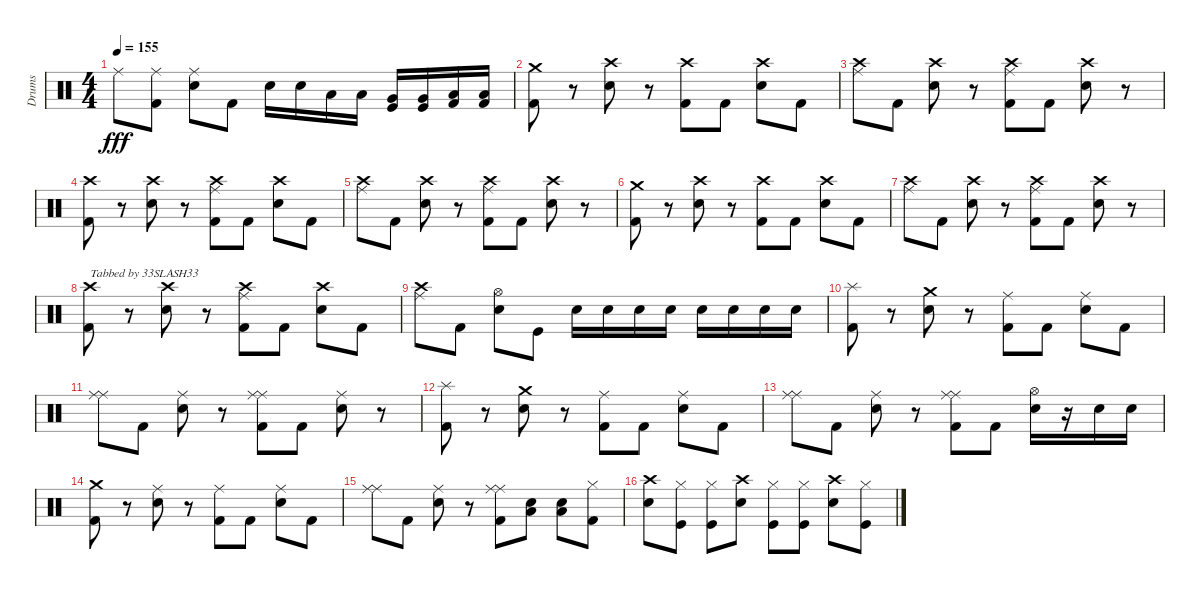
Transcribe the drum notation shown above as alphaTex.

\track ("Drums" "Drums") {instrument percussion}
\staff {score}
\articulation defaults
\ts (4 4)
\tempo 155
\clef neutral
\ks c "Ride (middle)".8{dy fff}
("Ride (middle)" "Kick (hit) 2").8 ("Ride (middle)" "Snare (hit) 2").8 "Kick (hit) 2".8 "Snare (hit) 2".16 "Snare (hit) 2".16 "Low Tom (hit)".16 "Low Tom (hit)".16 ("Very Low Tom (hit)" "Kick (hit)").16 ("Very Low Tom (hit)" "Kick (hit)").16 ("Low Floor Tom (hit)" "Kick (hit) 2").16 ("Low Floor Tom (hit)" "Kick (hit) 2").16 |
("Crash medium (hit)" "Kick (hit) 2").8 r.8 ("Crash high (hit)" "Snare (hit) 2").8 r.8 ("Crash high (hit)" "Kick (hit) 2").8 "Kick (hit) 2".8 ("Crash high (hit)" "Snare (hit) 2").8 "Kick (hit) 2".8 |
("Crash high (hit)" "Ride (middle)").8 "Kick (hit) 2".8 ("Crash high (hit)" "Snare (hit) 2").8 r.8 ("Crash high (hit)" "Ride (middle)" "Kick (hit) 2").8 "Kick (hit) 2".8 ("Crash high (hit)" "Snare (hit) 2").8 r.8 |
("Crash high (hit)" "Kick (hit) 2").8 r.8 ("Crash high (hit)" "Snare (hit) 2").8 r.8 ("Crash high (hit)" "Ride (middle)" "Kick (hit) 2").8 "Kick (hit) 2".8 ("Crash high (hit)" "Snare (hit) 2").8 "Kick (hit) 2".8 |
("Crash high (hit)" "Ride (middle)").8 "Kick (hit) 2".8 ("Crash high (hit)" "Snare (hit) 2").8 r.8 ("Crash high (hit)" "Ride (middle)" "Kick (hit) 2").8 "Kick (hit) 2".8 ("Crash high (hit)" "Snare (hit) 2").8 r.8 |
("Crash medium (hit)" "Kick (hit) 2").8 r.8 ("Crash high (hit)" "Snare (hit) 2").8 r.8 ("Crash high (hit)" "Kick (hit) 2").8 "Kick (hit) 2".8 ("Crash high (hit)" "Snare (hit) 2").8 "Kick (hit) 2".8 |
("Crash high (hit)" "Ride (middle)").8 "Kick (hit) 2".8 ("Crash high (hit)" "Snare (hit) 2").8 r.8 ("Crash high (hit)" "Ride (middle)" "Kick (hit) 2").8 "Kick (hit) 2".8 ("Crash high (hit)" "Snare (hit) 2").8 r.8 |
("Crash high (hit)" "Kick (hit) 2").8{txt "Tabbed by 33SLASH33"} r.8 ("Crash high (hit)" "Snare (hit) 2").8 r.8 ("Crash high (hit)" "Ride (middle)" "Kick (hit) 2").8 "Kick (hit) 2".8 ("Crash high (hit)" "Snare (hit) 2").8 "Kick (hit) 2".8 |
("Crash high (hit)" "Ride (middle)").8 "Kick (hit) 2".8 ("Hi-Hat (open)" "Snare (hit) 2").8 "Kick (hit)".8 "Snare (hit) 2".16 "Snare (hit) 2".16 "Snare (hit) 2".16 "Snare (hit) 2".16 "Snare (hit) 2".16 "Snare (hit) 2".16 "Snare (hit) 2".16 "Snare (hit) 2".16 |
("Splash (hit)" "Kick (hit) 2").8 r.8 ("Crash medium (hit)" "Snare (hit) 2").8 r.8 ("Ride (middle)" "Kick (hit) 2").8 "Kick (hit) 2".8 ("Ride (middle)" "Snare (hit) 2").8 "Kick (hit) 2".8 |
("Ride (middle)" "Ride (middle)").8 "Kick (hit) 2".8 ("Ride (middle)" "Snare (hit) 2").8 r.8 ("Ride (middle)" "Ride (middle)" "Kick (hit) 2").8 "Kick (hit) 2".8 ("Ride (middle)" "Snare (hit) 2").8 r.8 |
("Splash (hit)" "Kick (hit) 2").8 r.8 ("Crash medium (hit)" "Snare (hit) 2").8 r.8 ("Ride (middle)" "Kick (hit) 2").8 "Kick (hit) 2".8 ("Ride (middle)" "Snare (hit) 2").8 "Kick (hit) 2".8 |
("Ride (middle)" "Ride (middle)").8 "Kick (hit) 2".8 ("Ride (middle)" "Snare (hit) 2").8 r.8 ("Ride (middle)" "Ride (middle)" "Kick (hit) 2").8 "Kick (hit) 2".8 ("Hi-Hat (open)" "Snare (hit) 2").16 r.16 "Snare (hit) 2".16 "Snare (hit) 2".16 |
("Crash medium (hit)" "Kick (hit) 2").8 r.8 ("Ride (middle)" "Snare (hit) 2").8 r.8 ("Ride (middle)" "Kick (hit) 2").8 "Kick (hit) 2".8 ("Ride (middle)" "Snare (hit) 2").8 "Kick (hit) 2".8 |
("Ride (middle)" "Ride (middle)").8 "Kick (hit) 2".8 ("Ride (middle)" "Snare (hit) 2").8 r.8 ("Ride (middle)" "Ride (middle)" "Kick (hit) 2").8 ("Snare (hit) 2" "Low Floor Tom (hit)").8 ("Snare (hit) 2" "Low Floor Tom (hit)").8 ("Hi-Hat (closed)" "Kick (hit) 2").8 |
("Crash high (hit)" "Snare (hit) 2").8 ("Hi-Hat (closed)" "Kick (hit)").8 ("Hi-Hat (closed)" "Kick (hit)").8 ("Crash high (hit)" "Snare (hit) 2").8 ("Hi-Hat (closed)" "Kick (hit)").8 ("Hi-Hat (closed)" "Kick (hit)").8 ("Crash high (hit)" "Snare (hit) 2").8 ("Hi-Hat (closed)" "Kick (hit)").8
